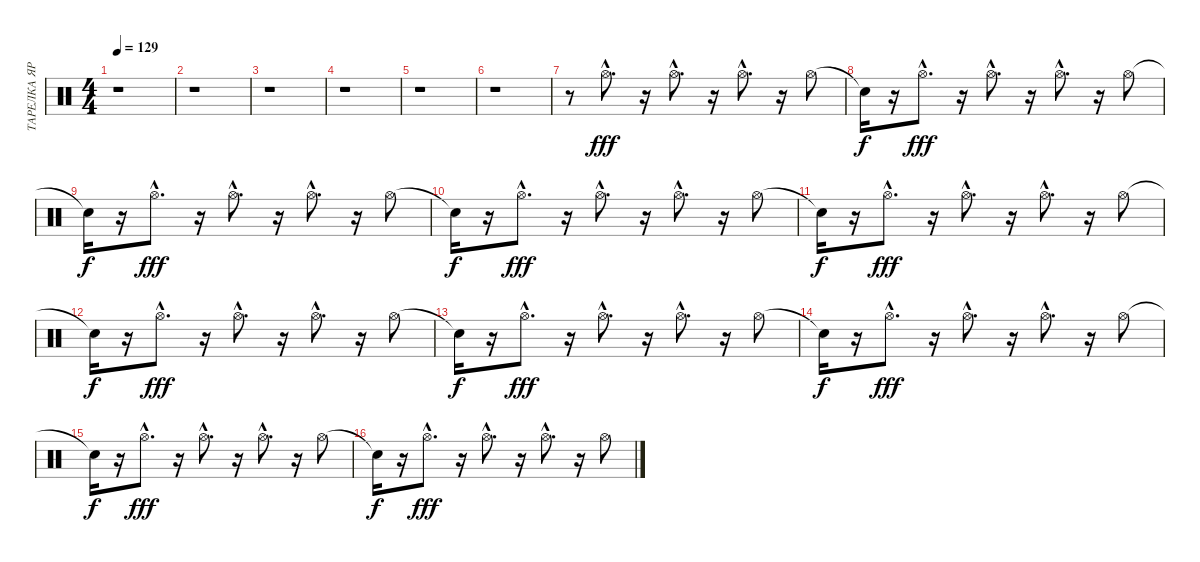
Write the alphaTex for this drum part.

\track ("ТАРЕЛКА ЯРКАЯ" "ТАРЕЛКА ЯР") {instrument percussion}
\staff {score}
\articulation defaults
\ts (4 4)
\tempo 129
\clef neutral
\ks c
r.1{dy fff} |
r.1 |
r.1 |
r.1 |
r.1 |
r.1 |
r.8 "Hi-Hat (open)"{hac}.8{d} r.16 "Hi-Hat (open)"{hac}.8{d} r.16 "Hi-Hat (open)"{hac}.8{d} r.16 "Hi-Hat (open)".8 |
"Snare (hit)"{t}.16{dy f} r.16 "Hi-Hat (open)"{hac}.8{d dy fff} r.16 "Hi-Hat (open)"{hac}.8{d} r.16 "Hi-Hat (open)"{hac}.8{d} r.16 "Hi-Hat (open)".8 |
"Snare (hit)"{t}.16{dy f} r.16 "Hi-Hat (open)"{hac}.8{d dy fff} r.16 "Hi-Hat (open)"{hac}.8{d} r.16 "Hi-Hat (open)"{hac}.8{d} r.16 "Hi-Hat (open)".8 |
"Snare (hit)"{t}.16{dy f} r.16 "Hi-Hat (open)"{hac}.8{d dy fff} r.16 "Hi-Hat (open)"{hac}.8{d} r.16 "Hi-Hat (open)"{hac}.8{d} r.16 "Hi-Hat (open)".8 |
"Snare (hit)"{t}.16{dy f} r.16 "Hi-Hat (open)"{hac}.8{d dy fff} r.16 "Hi-Hat (open)"{hac}.8{d} r.16 "Hi-Hat (open)"{hac}.8{d} r.16 "Hi-Hat (open)".8 |
"Snare (hit)"{t}.16{dy f} r.16 "Hi-Hat (open)"{hac}.8{d dy fff} r.16 "Hi-Hat (open)"{hac}.8{d} r.16 "Hi-Hat (open)"{hac}.8{d} r.16 "Hi-Hat (open)".8 |
"Snare (hit)"{t}.16{dy f} r.16 "Hi-Hat (open)"{hac}.8{d dy fff} r.16 "Hi-Hat (open)"{hac}.8{d} r.16 "Hi-Hat (open)"{hac}.8{d} r.16 "Hi-Hat (open)".8 |
"Snare (hit)"{t}.16{dy f} r.16 "Hi-Hat (open)"{hac}.8{d dy fff} r.16 "Hi-Hat (open)"{hac}.8{d} r.16 "Hi-Hat (open)"{hac}.8{d} r.16 "Hi-Hat (open)".8 |
"Snare (hit)"{t}.16{dy f} r.16 "Hi-Hat (open)"{hac}.8{d dy fff} r.16 "Hi-Hat (open)"{hac}.8{d} r.16 "Hi-Hat (open)"{hac}.8{d} r.16 "Hi-Hat (open)".8 |
"Snare (hit)"{t}.16{dy f} r.16 "Hi-Hat (open)"{hac}.8{d dy fff} r.16 "Hi-Hat (open)"{hac}.8{d} r.16 "Hi-Hat (open)"{hac}.8{d} r.16 "Hi-Hat (open)".8
